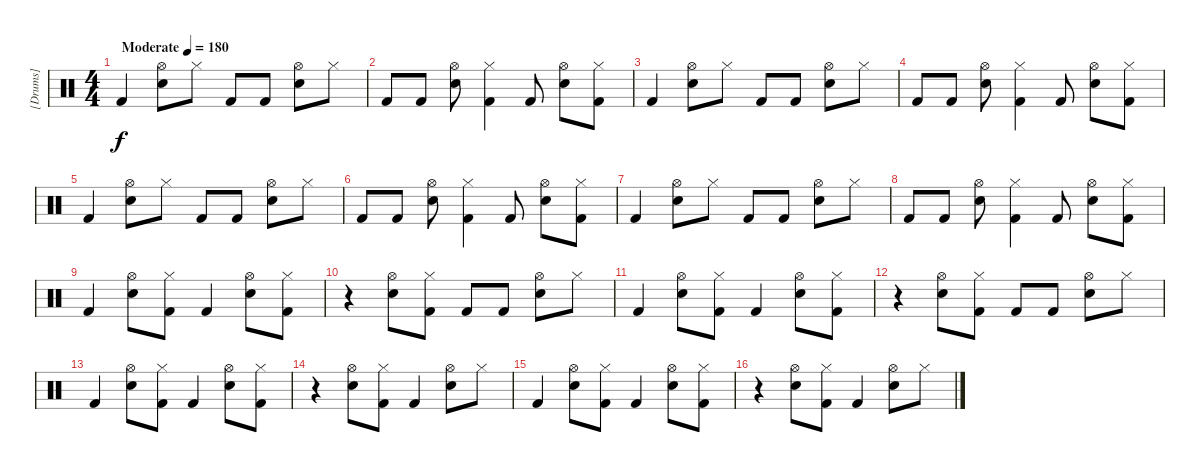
\track ("[Drums]" "[Drums]") {instrument percussion}
\staff {score}
\articulation defaults
\ts (4 4)
\tempo (180 "Moderate")
\clef neutral
\ks c "Kick (hit) 2".4{dy f}
("Hi-Hat (open)" "Electric Snare (hit)").8 "Hi-Hat (closed)".8 "Kick (hit) 2".8 "Kick (hit) 2".8 ("Hi-Hat (open)" "Electric Snare (hit)").8 "Hi-Hat (closed)".8 |
"Kick (hit) 2".8 "Kick (hit) 2".8 ("Hi-Hat (open)" "Electric Snare (hit)").8 ("Hi-Hat (closed)" "Kick (hit) 2").4 "Kick (hit) 2".8 ("Hi-Hat (open)" "Electric Snare (hit)").8 ("Hi-Hat (closed)" "Kick (hit) 2").8 |
"Kick (hit) 2".4 ("Hi-Hat (open)" "Electric Snare (hit)").8 "Hi-Hat (closed)".8 "Kick (hit) 2".8 "Kick (hit) 2".8 ("Hi-Hat (open)" "Electric Snare (hit)").8 "Hi-Hat (closed)".8 |
"Kick (hit) 2".8 "Kick (hit) 2".8 ("Hi-Hat (open)" "Electric Snare (hit)").8 ("Hi-Hat (closed)" "Kick (hit) 2").4 "Kick (hit) 2".8 ("Hi-Hat (open)" "Electric Snare (hit)").8 ("Hi-Hat (closed)" "Kick (hit) 2").8 |
"Kick (hit) 2".4 ("Hi-Hat (open)" "Electric Snare (hit)").8 "Hi-Hat (closed)".8 "Kick (hit) 2".8 "Kick (hit) 2".8 ("Hi-Hat (open)" "Electric Snare (hit)").8 "Hi-Hat (closed)".8 |
"Kick (hit) 2".8 "Kick (hit) 2".8 ("Hi-Hat (open)" "Electric Snare (hit)").8 ("Hi-Hat (closed)" "Kick (hit) 2").4 "Kick (hit) 2".8 ("Hi-Hat (open)" "Electric Snare (hit)").8 ("Hi-Hat (closed)" "Kick (hit) 2").8 |
"Kick (hit) 2".4 ("Hi-Hat (open)" "Electric Snare (hit)").8 "Hi-Hat (closed)".8 "Kick (hit) 2".8 "Kick (hit) 2".8 ("Hi-Hat (open)" "Electric Snare (hit)").8 "Hi-Hat (closed)".8 |
"Kick (hit) 2".8 "Kick (hit) 2".8 ("Hi-Hat (open)" "Electric Snare (hit)").8 ("Hi-Hat (closed)" "Kick (hit) 2").4 "Kick (hit) 2".8 ("Hi-Hat (open)" "Electric Snare (hit)").8 ("Hi-Hat (closed)" "Kick (hit) 2").8 |
"Kick (hit) 2".4 ("Hi-Hat (open)" "Electric Snare (hit)").8 ("Hi-Hat (closed)" "Kick (hit) 2").8 "Kick (hit) 2".4 ("Hi-Hat (open)" "Electric Snare (hit)").8 ("Hi-Hat (closed)" "Kick (hit) 2").8 |
r.4 ("Hi-Hat (open)" "Electric Snare (hit)").8 ("Hi-Hat (closed)" "Kick (hit) 2").8 "Kick (hit) 2".8 "Kick (hit) 2".8 ("Hi-Hat (open)" "Electric Snare (hit)").8 "Hi-Hat (closed)".8 |
"Kick (hit) 2".4 ("Hi-Hat (open)" "Electric Snare (hit)").8 ("Hi-Hat (closed)" "Kick (hit) 2").8 "Kick (hit) 2".4 ("Hi-Hat (open)" "Electric Snare (hit)").8 ("Hi-Hat (closed)" "Kick (hit) 2").8 |
r.4 ("Hi-Hat (open)" "Electric Snare (hit)").8 ("Hi-Hat (closed)" "Kick (hit) 2").8 "Kick (hit) 2".8 "Kick (hit) 2".8 ("Hi-Hat (open)" "Electric Snare (hit)").8 "Hi-Hat (closed)".8 |
"Kick (hit) 2".4 ("Hi-Hat (open)" "Electric Snare (hit)").8 ("Hi-Hat (closed)" "Kick (hit) 2").8 "Kick (hit) 2".4 ("Hi-Hat (open)" "Electric Snare (hit)").8 ("Hi-Hat (closed)" "Kick (hit) 2").8 |
r.4 ("Hi-Hat (open)" "Electric Snare (hit)").8 ("Hi-Hat (closed)" "Kick (hit) 2").8 "Kick (hit) 2".4 ("Hi-Hat (open)" "Electric Snare (hit)").8 "Hi-Hat (closed)".8 |
"Kick (hit) 2".4 ("Hi-Hat (open)" "Electric Snare (hit)").8 ("Hi-Hat (closed)" "Kick (hit) 2").8 "Kick (hit) 2".4 ("Hi-Hat (open)" "Electric Snare (hit)").8 ("Hi-Hat (closed)" "Kick (hit) 2").8 |
r.4 ("Hi-Hat (open)" "Electric Snare (hit)").8 ("Hi-Hat (closed)" "Kick (hit) 2").8 "Kick (hit) 2".4 ("Hi-Hat (open)" "Electric Snare (hit)").8 "Hi-Hat (closed)".8
